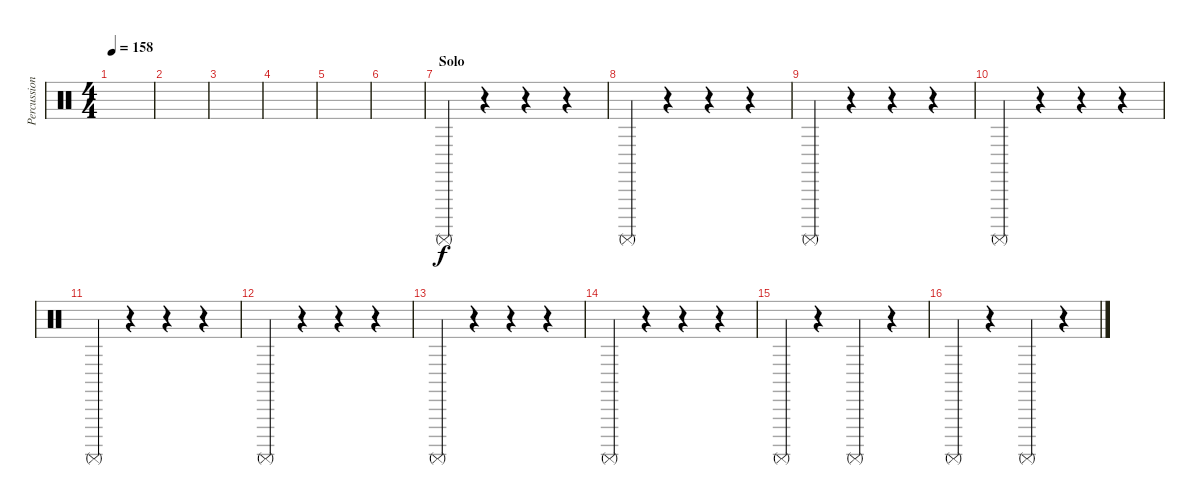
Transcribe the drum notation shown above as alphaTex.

\track ("Percussion" "Percussion") {instrument percussion}
\staff {score}
\articulation defaults
\ts (4 4)
\tempo 158
\clef neutral
\ks c
|
|
|
|
|
|
\section ("" "Solo")
"Surdo (mute)".4 r.4 r.4 r.4 |
"Surdo (mute)".4 r.4 r.4 r.4 |
"Surdo (mute)".4 r.4 r.4 r.4 |
"Surdo (mute)".4 r.4 r.4 r.4 |
"Surdo (mute)".4 r.4 r.4 r.4 |
"Surdo (mute)".4 r.4 r.4 r.4 |
"Surdo (mute)".4 r.4 r.4 r.4 |
"Surdo (mute)".4 r.4 r.4 r.4 |
"Surdo (mute)".4 r.4 "Surdo (mute)".4 r.4 |
"Surdo (mute)".4 r.4 "Surdo (mute)".4 r.4
